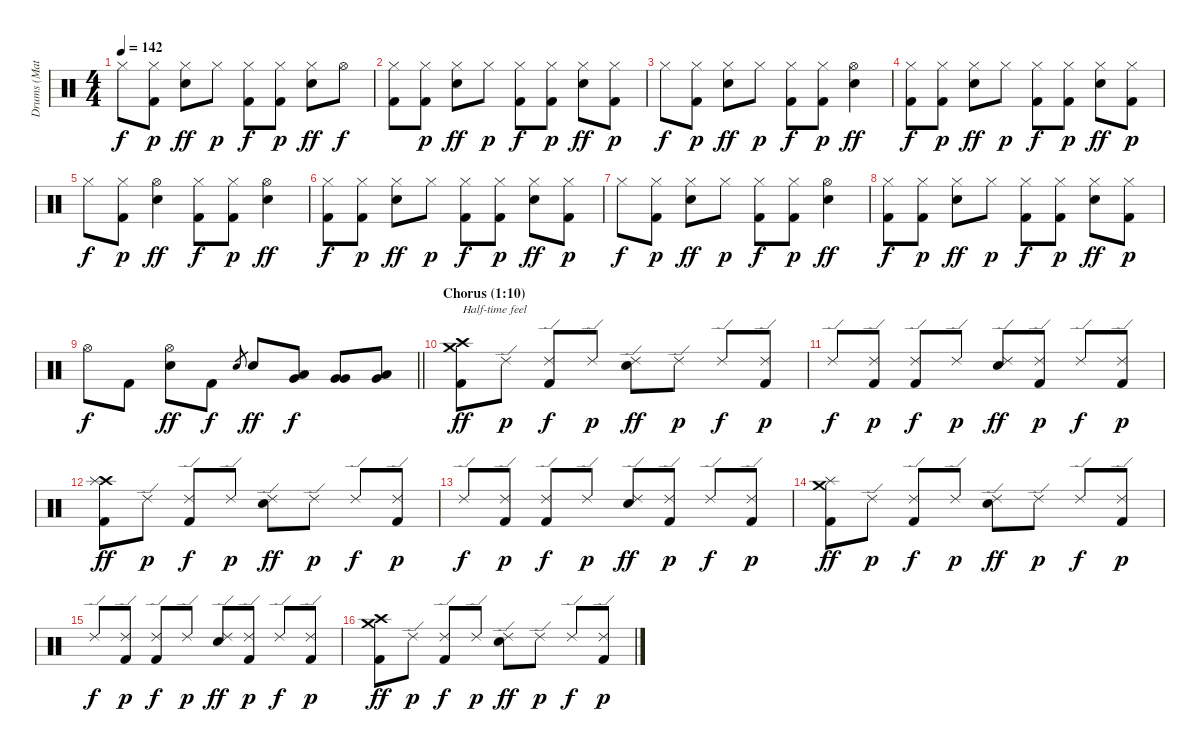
\track ("Drums (Matt Sorum)" "Drums (Mat") {instrument percussion}
\staff {score}
\articulation defaults
\ts (4 4)
\tempo 142
\clef neutral
\ks c "Hi-Hat (closed)".8{dy f}
("Hi-Hat (closed)" "Kick (hit) 2").8{dy p} ("Hi-Hat (closed)" "Snare (hit) 2").8{dy ff} "Hi-Hat (closed)".8{dy p} ("Hi-Hat (closed)" "Kick (hit) 2").8{dy f} ("Hi-Hat (closed)" "Kick (hit) 2").8{dy p} ("Hi-Hat (closed)" "Snare (hit) 2").8{dy ff} "Hi-Hat (open)".8{dy f} |
("Hi-Hat (closed)" "Kick (hit) 2").8 ("Hi-Hat (closed)" "Kick (hit) 2").8{dy p} ("Hi-Hat (closed)" "Snare (hit) 2").8{dy ff} "Hi-Hat (closed)".8{dy p} ("Hi-Hat (closed)" "Kick (hit) 2").8{dy f} ("Hi-Hat (closed)" "Kick (hit) 2").8{dy p} ("Hi-Hat (closed)" "Snare (hit) 2").8{dy ff} ("Hi-Hat (closed)" "Kick (hit) 2").8{dy p} |
"Hi-Hat (closed)".8{dy f} ("Hi-Hat (closed)" "Kick (hit) 2").8{dy p} ("Hi-Hat (closed)" "Snare (hit) 2").8{dy ff} "Hi-Hat (closed)".8{dy p} ("Hi-Hat (closed)" "Kick (hit) 2").8{dy f} ("Hi-Hat (closed)" "Kick (hit) 2").8{dy p} ("Hi-Hat (open)" "Snare (hit) 2").4{dy ff} |
("Hi-Hat (closed)" "Kick (hit) 2").8{dy f} ("Hi-Hat (closed)" "Kick (hit) 2").8{dy p} ("Hi-Hat (closed)" "Snare (hit) 2").8{dy ff} "Hi-Hat (closed)".8{dy p} ("Hi-Hat (closed)" "Kick (hit) 2").8{dy f} ("Hi-Hat (closed)" "Kick (hit) 2").8{dy p} ("Hi-Hat (closed)" "Snare (hit) 2").8{dy ff} ("Hi-Hat (closed)" "Kick (hit) 2").8{dy p} |
"Hi-Hat (closed)".8{dy f} ("Hi-Hat (closed)" "Kick (hit) 2").8{dy p} ("Hi-Hat (open)" "Snare (hit) 2").4{dy ff} ("Hi-Hat (closed)" "Kick (hit) 2").8{dy f} ("Hi-Hat (closed)" "Kick (hit) 2").8{dy p} ("Hi-Hat (open)" "Snare (hit) 2").4{dy ff} |
("Hi-Hat (closed)" "Kick (hit) 2").8{dy f} ("Hi-Hat (closed)" "Kick (hit) 2").8{dy p} ("Hi-Hat (closed)" "Snare (hit) 2").8{dy ff} "Hi-Hat (closed)".8{dy p} ("Hi-Hat (closed)" "Kick (hit) 2").8{dy f} ("Hi-Hat (closed)" "Kick (hit) 2").8{dy p} ("Hi-Hat (closed)" "Snare (hit) 2").8{dy ff} ("Hi-Hat (closed)" "Kick (hit) 2").8{dy p} |
"Hi-Hat (closed)".8{dy f} ("Hi-Hat (closed)" "Kick (hit) 2").8{dy p} ("Hi-Hat (closed)" "Snare (hit) 2").8{dy ff} "Hi-Hat (closed)".8{dy p} ("Hi-Hat (closed)" "Kick (hit) 2").8{dy f} ("Hi-Hat (closed)" "Kick (hit) 2").8{dy p} ("Hi-Hat (open)" "Snare (hit) 2").4{dy ff} |
("Hi-Hat (closed)" "Kick (hit) 2").8{dy f} ("Hi-Hat (closed)" "Kick (hit) 2").8{dy p} ("Hi-Hat (closed)" "Snare (hit) 2").8{dy ff} "Hi-Hat (closed)".8{dy p} ("Hi-Hat (closed)" "Kick (hit) 2").8{dy f} ("Hi-Hat (closed)" "Kick (hit) 2").8{dy p} ("Hi-Hat (closed)" "Snare (hit) 2").8{dy ff} ("Hi-Hat (closed)" "Kick (hit) 2").8{dy p} |
\barLineRight lightlight "Hi-Hat (open)".8{dy f} "Kick (hit) 2".8
("Hi-Hat (open)" "Snare (hit) 2").8{dy ff} "Kick (hit) 2".8{dy f} "Snare (hit) 2".8{gr} "Snare (hit) 2".8{dy ff} ("Low Tom (hit)" "Very Low Tom (hit)").8{dy f} ("Very Low Tom (hit)" "Very Low Tom (hit)").8 ("Low Floor Tom (hit)" "Very Low Tom (hit)").8 |
\section ("" "Chorus (1:10)")
("Crash high (hit)" "Crash medium (hit)" "Kick (hit) 2").8{txt "Half-time feel" dy ff} "Ride (edge) 2".8{dy p} ("Ride (edge) 2" "Kick (hit) 2").8{dy f} "Ride (edge) 2".8{dy p} ("Ride (edge) 2" "Snare (hit) 2").8{dy ff} "Ride (edge) 2".8{dy p} "Ride (edge) 2".8{dy f} ("Ride (edge) 2" "Kick (hit) 2").8{dy p} |
"Ride (edge) 2".8{dy f} ("Ride (edge) 2" "Kick (hit) 2").8{dy p} ("Ride (edge) 2" "Kick (hit) 2").8{dy f} "Ride (edge) 2".8{dy p} ("Ride (edge) 2" "Snare (hit) 2").8{dy ff} ("Ride (edge) 2" "Kick (hit) 2").8{dy p} "Ride (edge) 2".8{dy f} ("Ride (edge) 2" "Kick (hit) 2").8{dy p} |
("Crash high (hit)" "Splash (hit)" "Kick (hit) 2").8{dy ff} "Ride (edge) 2".8{dy p} ("Ride (edge) 2" "Kick (hit) 2").8{dy f} "Ride (edge) 2".8{dy p} ("Ride (edge) 2" "Snare (hit) 2").8{dy ff} "Ride (edge) 2".8{dy p} "Ride (edge) 2".8{dy f} ("Ride (edge) 2" "Kick (hit) 2").8{dy p} |
"Ride (edge) 2".8{dy f} ("Ride (edge) 2" "Kick (hit) 2").8{dy p} ("Ride (edge) 2" "Kick (hit) 2").8{dy f} "Ride (edge) 2".8{dy p} ("Ride (edge) 2" "Snare (hit) 2").8{dy ff} ("Ride (edge) 2" "Kick (hit) 2").8{dy p} "Ride (edge) 2".8{dy f} ("Ride (edge) 2" "Kick (hit) 2").8{dy p} |
("Crash medium (hit)" "Splash (hit)" "Kick (hit) 2").8{dy ff} "Ride (edge) 2".8{dy p} ("Ride (edge) 2" "Kick (hit) 2").8{dy f} "Ride (edge) 2".8{dy p} ("Ride (edge) 2" "Snare (hit) 2").8{dy ff} "Ride (edge) 2".8{dy p} "Ride (edge) 2".8{dy f} ("Ride (edge) 2" "Kick (hit) 2").8{dy p} |
"Ride (edge) 2".8{dy f} ("Ride (edge) 2" "Kick (hit) 2").8{dy p} ("Ride (edge) 2" "Kick (hit) 2").8{dy f} "Ride (edge) 2".8{dy p} ("Ride (edge) 2" "Snare (hit) 2").8{dy ff} ("Ride (edge) 2" "Kick (hit) 2").8{dy p} "Ride (edge) 2".8{dy f} ("Ride (edge) 2" "Kick (hit) 2").8{dy p} |
("Crash high (hit)" "Crash medium (hit)" "Kick (hit) 2").8{dy ff} "Ride (edge) 2".8{dy p} ("Ride (edge) 2" "Kick (hit) 2").8{dy f} "Ride (edge) 2".8{dy p} ("Ride (edge) 2" "Snare (hit) 2").8{dy ff} "Ride (edge) 2".8{dy p} "Ride (edge) 2".8{dy f} ("Ride (edge) 2" "Kick (hit) 2").8{dy p}
